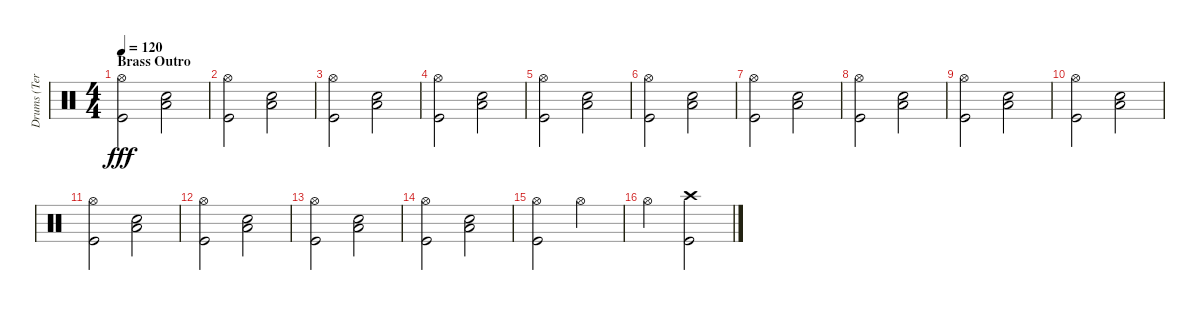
\track ("Drums (Terry Bozzio)" "Drums (Ter") {instrument percussion}
\staff {score}
\articulation defaults
\ts (4 4)
\section ("" "Brass Outro")
\tempo 120
\clef neutral
\ks c
("Hi-Hat (open)" "Kick (hit)").2{dy fff} ("Low Floor Tom (hit)" "Snare (hit) 2").2 |
("Hi-Hat (open)" "Kick (hit)").2 ("Low Floor Tom (hit)" "Snare (hit) 2").2 |
("Hi-Hat (open)" "Kick (hit)").2 ("Low Floor Tom (hit)" "Snare (hit) 2").2 |
("Hi-Hat (open)" "Kick (hit)").2 ("Low Floor Tom (hit)" "Snare (hit) 2").2 |
("Hi-Hat (open)" "Kick (hit)").2 ("Low Floor Tom (hit)" "Snare (hit) 2").2 |
("Hi-Hat (open)" "Kick (hit)").2 ("Low Floor Tom (hit)" "Snare (hit) 2").2 |
("Hi-Hat (open)" "Kick (hit)").2 ("Low Floor Tom (hit)" "Snare (hit) 2").2 |
("Hi-Hat (open)" "Kick (hit)").2 ("Low Floor Tom (hit)" "Snare (hit) 2").2 |
("Hi-Hat (open)" "Kick (hit)").2 ("Low Floor Tom (hit)" "Snare (hit) 2").2 |
("Hi-Hat (open)" "Kick (hit)").2 ("Low Floor Tom (hit)" "Snare (hit) 2").2 |
("Hi-Hat (open)" "Kick (hit)").2 ("Low Floor Tom (hit)" "Snare (hit) 2").2 |
("Hi-Hat (open)" "Kick (hit)").2 ("Low Floor Tom (hit)" "Snare (hit) 2").2 |
("Hi-Hat (open)" "Kick (hit)").2 ("Low Floor Tom (hit)" "Snare (hit) 2").2 |
("Hi-Hat (open)" "Kick (hit)").2 ("Low Floor Tom (hit)" "Snare (hit) 2").2 |
("Hi-Hat (open)" "Kick (hit)").2 "Hi-Hat (open)".2 |
"Hi-Hat (open)".2 ("Crash high (hit)" "Kick (hit)").2
